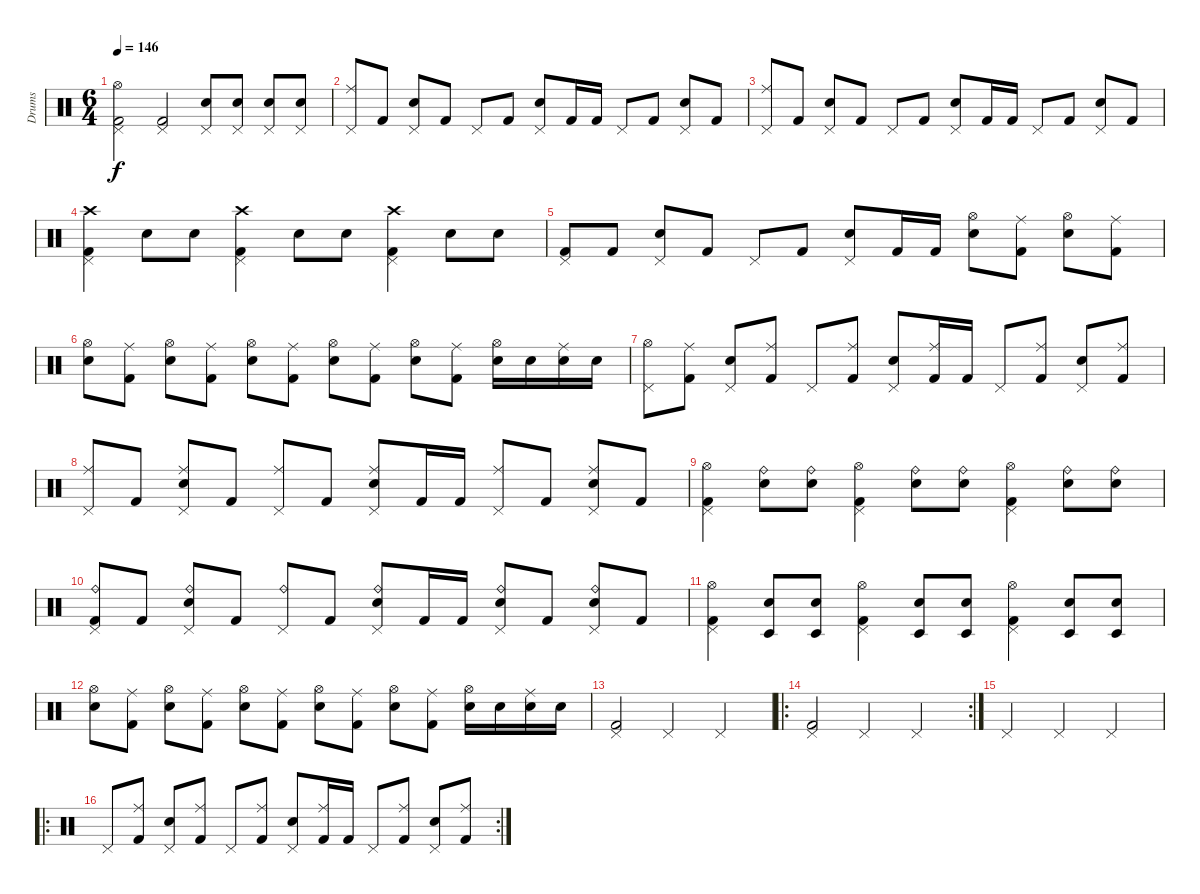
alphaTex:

\track ("Drums" "Drums") {instrument percussion}
\staff {score}
\articulation defaults
\ts (6 4)
\tempo 146
\clef neutral
\ks c
("Pedal Hi-Hat (hit)" "Kick (hit) 2" "Hi-Hat (open)").2{dy f} ("Pedal Hi-Hat (hit)" "Kick (hit) 2").2 ("Pedal Hi-Hat (hit)" "Electric Snare (hit)").8 ("Pedal Hi-Hat (hit)" "Electric Snare (hit)").8 ("Pedal Hi-Hat (hit)" "Electric Snare (hit)").8 ("Pedal Hi-Hat (hit)" "Electric Snare (hit)").8 |
("Pedal Hi-Hat (hit)" "Ride (middle)").8 "Kick (hit) 2".8 ("Pedal Hi-Hat (hit)" "Electric Snare (hit)").8 "Kick (hit) 2".8 "Pedal Hi-Hat (hit)".8 "Kick (hit) 2".8 ("Pedal Hi-Hat (hit)" "Electric Snare (hit)").8 "Kick (hit) 2".16 "Kick (hit) 2".16 "Pedal Hi-Hat (hit)".8 "Kick (hit) 2".8 ("Pedal Hi-Hat (hit)" "Electric Snare (hit)").8 "Kick (hit) 2".8 |
("Pedal Hi-Hat (hit)" "Ride (middle)").8 "Kick (hit) 2".8 ("Pedal Hi-Hat (hit)" "Electric Snare (hit)").8 "Kick (hit) 2".8 "Pedal Hi-Hat (hit)".8 "Kick (hit) 2".8 ("Pedal Hi-Hat (hit)" "Electric Snare (hit)").8 "Kick (hit) 2".16 "Kick (hit) 2".16 "Pedal Hi-Hat (hit)".8 "Kick (hit) 2".8 ("Pedal Hi-Hat (hit)" "Electric Snare (hit)").8 "Kick (hit) 2".8 |
("Pedal Hi-Hat (hit)" "Kick (hit) 2" "Crash high (hit)").4 "Electric Snare (hit)".8 "Electric Snare (hit)".8 ("Pedal Hi-Hat (hit)" "Kick (hit) 2" "Crash high (hit)").4 "Electric Snare (hit)".8 "Electric Snare (hit)".8 ("Pedal Hi-Hat (hit)" "Kick (hit) 2" "Crash high (hit)").4 "Electric Snare (hit)".8 "Electric Snare (hit)".8 |
("Pedal Hi-Hat (hit)" "Kick (hit) 2").8 "Kick (hit) 2".8 ("Pedal Hi-Hat (hit)" "Electric Snare (hit)").8 "Kick (hit) 2".8 "Pedal Hi-Hat (hit)".8 "Kick (hit) 2".8 ("Pedal Hi-Hat (hit)" "Electric Snare (hit)").8 "Kick (hit) 2".16 "Kick (hit) 2".16 ("Hi-Hat (open)" "Electric Snare (hit)").8 ("Ride (middle)" "Kick (hit) 2").8 ("Hi-Hat (open)" "Electric Snare (hit)").8 ("Ride (middle)" "Kick (hit) 2").8 |
("Hi-Hat (open)" "Electric Snare (hit)").8 ("Ride (middle)" "Kick (hit) 2").8 ("Hi-Hat (open)" "Electric Snare (hit)").8 ("Ride (middle)" "Kick (hit) 2").8 ("Hi-Hat (open)" "Electric Snare (hit)").8 ("Ride (middle)" "Kick (hit) 2").8 ("Hi-Hat (open)" "Electric Snare (hit)").8 ("Ride (middle)" "Kick (hit) 2").8 ("Hi-Hat (open)" "Electric Snare (hit)").8 ("Ride (middle)" "Kick (hit) 2").8 ("Hi-Hat (open)" "Electric Snare (hit)").16 "Electric Snare (hit)".16 ("Ride (middle)" "Electric Snare (hit)").16 "Electric Snare (hit)".16 |
("Pedal Hi-Hat (hit)" "Hi-Hat (open)").8 ("Ride (middle)" "Kick (hit) 2").8 ("Pedal Hi-Hat (hit)" "Electric Snare (hit)").8 ("Ride (middle)" "Kick (hit) 2").8 "Pedal Hi-Hat (hit)".8 ("Ride (middle)" "Kick (hit) 2").8 ("Pedal Hi-Hat (hit)" "Electric Snare (hit)").8 ("Ride (middle)" "Kick (hit) 2").16 "Kick (hit) 2".16 "Pedal Hi-Hat (hit)".8 ("Ride (middle)" "Kick (hit) 2").8 ("Pedal Hi-Hat (hit)" "Electric Snare (hit)").8 ("Ride (middle)" "Kick (hit) 2").8 |
("Pedal Hi-Hat (hit)" "Ride (middle)").8 "Kick (hit) 2".8 ("Pedal Hi-Hat (hit)" "Electric Snare (hit)" "Ride (middle)").8 "Kick (hit) 2".8 ("Pedal Hi-Hat (hit)" "Ride (middle)").8 "Kick (hit) 2".8 ("Pedal Hi-Hat (hit)" "Electric Snare (hit)" "Ride (middle)").8 "Kick (hit) 2".16 "Kick (hit) 2".16 ("Pedal Hi-Hat (hit)" "Ride (middle)").8 "Kick (hit) 2".8 ("Pedal Hi-Hat (hit)" "Electric Snare (hit)" "Ride (middle)").8 "Kick (hit) 2".8 |
("Pedal Hi-Hat (hit)" "Kick (hit) 2" "Hi-Hat (open)").4 ("Ride (bell)" "Electric Snare (hit)").8 ("Ride (bell)" "Electric Snare (hit)").8 ("Pedal Hi-Hat (hit)" "Kick (hit) 2" "Hi-Hat (open)").4 ("Ride (bell)" "Electric Snare (hit)").8 ("Ride (bell)" "Electric Snare (hit)").8 ("Pedal Hi-Hat (hit)" "Kick (hit) 2" "Hi-Hat (open)").4 ("Ride (bell)" "Electric Snare (hit)").8 ("Ride (bell)" "Electric Snare (hit)").8 |
("Pedal Hi-Hat (hit)" "Ride (bell)" "Kick (hit) 2").8 "Kick (hit) 2".8 ("Pedal Hi-Hat (hit)" "Electric Snare (hit)" "Ride (bell)").8 "Kick (hit) 2".8 ("Pedal Hi-Hat (hit)" "Ride (bell)").8 "Kick (hit) 2".8 ("Pedal Hi-Hat (hit)" "Electric Snare (hit)" "Ride (bell)").8 "Kick (hit) 2".16 "Kick (hit) 2".16 ("Pedal Hi-Hat (hit)" "Electric Snare (hit)" "Ride (bell)").8 "Kick (hit) 2".8 ("Pedal Hi-Hat (hit)" "Electric Snare (hit)" "Ride (bell)").8 "Kick (hit) 2".8 |
("Pedal Hi-Hat (hit)" "Kick (hit) 2" "Hi-Hat (open)").4 ("Timbale low (hit)" "Electric Snare (hit)").8 ("Timbale low (hit)" "Electric Snare (hit)").8 ("Pedal Hi-Hat (hit)" "Kick (hit) 2" "Hi-Hat (open)").4 ("Timbale low (hit)" "Electric Snare (hit)").8 ("Timbale low (hit)" "Electric Snare (hit)").8 ("Pedal Hi-Hat (hit)" "Kick (hit) 2" "Hi-Hat (open)").4 ("Timbale low (hit)" "Electric Snare (hit)").8 ("Timbale low (hit)" "Electric Snare (hit)").8 |
("Hi-Hat (open)" "Electric Snare (hit)").8 ("Ride (middle)" "Kick (hit) 2").8 ("Hi-Hat (open)" "Electric Snare (hit)").8 ("Ride (middle)" "Kick (hit) 2").8 ("Hi-Hat (open)" "Electric Snare (hit)").8 ("Ride (middle)" "Kick (hit) 2").8 ("Hi-Hat (open)" "Electric Snare (hit)").8 ("Ride (middle)" "Kick (hit) 2").8 ("Hi-Hat (open)" "Electric Snare (hit)").8 ("Ride (middle)" "Kick (hit) 2").8 ("Hi-Hat (open)" "Electric Snare (hit)").16 "Electric Snare (hit)".16 ("Ride (middle)" "Electric Snare (hit)").16 "Electric Snare (hit)".16 |
("Pedal Hi-Hat (hit)" "Kick (hit) 2").2 "Pedal Hi-Hat (hit)".2 "Pedal Hi-Hat (hit)".2 |
\ro
\rc 2
("Pedal Hi-Hat (hit)" "Kick (hit) 2").2 "Pedal Hi-Hat (hit)".2 "Pedal Hi-Hat (hit)".2 |
"Pedal Hi-Hat (hit)".2 "Pedal Hi-Hat (hit)".2 "Pedal Hi-Hat (hit)".2 |
\ro
\rc 2 "Pedal Hi-Hat (hit)".8
("Ride (middle)" "Kick (hit) 2").8 ("Pedal Hi-Hat (hit)" "Electric Snare (hit)").8 ("Ride (middle)" "Kick (hit) 2").8 "Pedal Hi-Hat (hit)".8 ("Ride (middle)" "Kick (hit) 2").8 ("Pedal Hi-Hat (hit)" "Electric Snare (hit)").8 ("Ride (middle)" "Kick (hit) 2").16 "Kick (hit) 2".16 "Pedal Hi-Hat (hit)".8 ("Ride (middle)" "Kick (hit) 2").8 ("Pedal Hi-Hat (hit)" "Electric Snare (hit)").8 ("Ride (middle)" "Kick (hit) 2").8
